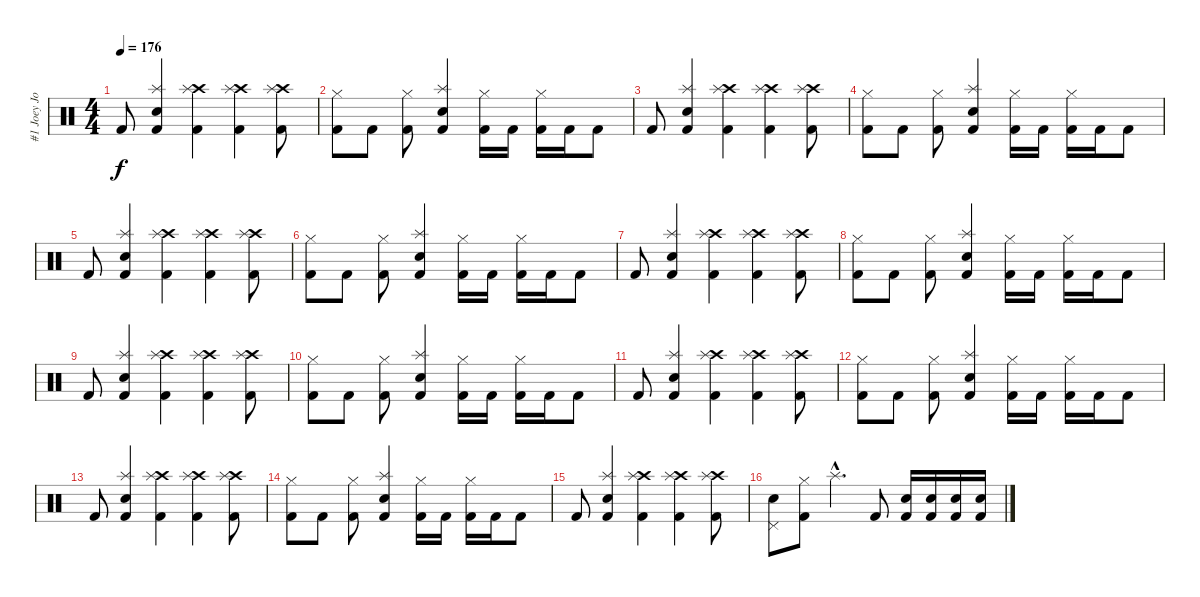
\track ("#1 Joey Jordison - Drums" "#1 Joey Jo") {instrument percussion}
\staff {score}
\articulation defaults
\ts (4 4)
\tempo 176
\clef neutral
\ks c "Kick (hit) 2".8{dy f}
("Splash (hit)" "Snare (hit) 2" "Kick (hit) 2").4 ("Crash high (hit)" "Splash (hit)" "Kick (hit) 2").4 ("Crash high (hit)" "Splash (hit)" "Kick (hit) 2").4 ("Crash high (hit)" "Splash (hit)" "Kick (hit) 2").8 |
("Hi-Hat (closed)" "Kick (hit) 2").8 "Kick (hit) 2".8 ("Hi-Hat (closed)" "Kick (hit) 2").8 ("Splash (hit)" "Snare (hit) 2" "Kick (hit) 2").4 ("Hi-Hat (closed)" "Kick (hit) 2").16 "Kick (hit) 2".16 ("Hi-Hat (closed)" "Kick (hit) 2").16 "Kick (hit) 2".16 "Kick (hit) 2".8 |
"Kick (hit) 2".8 ("Splash (hit)" "Snare (hit) 2" "Kick (hit) 2").4 ("Crash high (hit)" "Splash (hit)" "Kick (hit) 2").4 ("Crash high (hit)" "Splash (hit)" "Kick (hit) 2").4 ("Crash high (hit)" "Splash (hit)" "Kick (hit) 2").8 |
("Hi-Hat (closed)" "Kick (hit) 2").8 "Kick (hit) 2".8 ("Hi-Hat (closed)" "Kick (hit) 2").8 ("Splash (hit)" "Snare (hit) 2" "Kick (hit) 2").4 ("Hi-Hat (closed)" "Kick (hit) 2").16 "Kick (hit) 2".16 ("Hi-Hat (closed)" "Kick (hit) 2").16 "Kick (hit) 2".16 "Kick (hit) 2".8 |
"Kick (hit) 2".8 ("Splash (hit)" "Snare (hit) 2" "Kick (hit) 2").4 ("Crash high (hit)" "Splash (hit)" "Kick (hit) 2").4 ("Crash high (hit)" "Splash (hit)" "Kick (hit) 2").4 ("Crash high (hit)" "Splash (hit)" "Kick (hit) 2").8 |
("Hi-Hat (closed)" "Kick (hit) 2").8 "Kick (hit) 2".8 ("Hi-Hat (closed)" "Kick (hit) 2").8 ("Splash (hit)" "Snare (hit) 2" "Kick (hit) 2").4 ("Hi-Hat (closed)" "Kick (hit) 2").16 "Kick (hit) 2".16 ("Hi-Hat (closed)" "Kick (hit) 2").16 "Kick (hit) 2".16 "Kick (hit) 2".8 |
"Kick (hit) 2".8 ("Splash (hit)" "Snare (hit) 2" "Kick (hit) 2").4 ("Crash high (hit)" "Splash (hit)" "Kick (hit) 2").4 ("Crash high (hit)" "Splash (hit)" "Kick (hit) 2").4 ("Crash high (hit)" "Splash (hit)" "Kick (hit) 2").8 |
("Hi-Hat (closed)" "Kick (hit) 2").8 "Kick (hit) 2".8 ("Hi-Hat (closed)" "Kick (hit) 2").8 ("Splash (hit)" "Snare (hit) 2" "Kick (hit) 2").4 ("Hi-Hat (closed)" "Kick (hit) 2").16 "Kick (hit) 2".16 ("Hi-Hat (closed)" "Kick (hit) 2").16 "Kick (hit) 2".16 "Kick (hit) 2".8 |
"Kick (hit) 2".8 ("Splash (hit)" "Snare (hit) 2" "Kick (hit) 2").4 ("Crash high (hit)" "Splash (hit)" "Kick (hit) 2").4 ("Crash high (hit)" "Splash (hit)" "Kick (hit) 2").4 ("Crash high (hit)" "Splash (hit)" "Kick (hit) 2").8 |
("Hi-Hat (closed)" "Kick (hit) 2").8 "Kick (hit) 2".8 ("Hi-Hat (closed)" "Kick (hit) 2").8 ("Splash (hit)" "Snare (hit) 2" "Kick (hit) 2").4 ("Hi-Hat (closed)" "Kick (hit) 2").16 "Kick (hit) 2".16 ("Hi-Hat (closed)" "Kick (hit) 2").16 "Kick (hit) 2".16 "Kick (hit) 2".8 |
"Kick (hit) 2".8 ("Splash (hit)" "Snare (hit) 2" "Kick (hit) 2").4 ("Crash high (hit)" "Splash (hit)" "Kick (hit) 2").4 ("Crash high (hit)" "Splash (hit)" "Kick (hit) 2").4 ("Crash high (hit)" "Splash (hit)" "Kick (hit) 2").8 |
("Hi-Hat (closed)" "Kick (hit) 2").8 "Kick (hit) 2".8 ("Hi-Hat (closed)" "Kick (hit) 2").8 ("Splash (hit)" "Snare (hit) 2" "Kick (hit) 2").4 ("Hi-Hat (closed)" "Kick (hit) 2").16 "Kick (hit) 2".16 ("Hi-Hat (closed)" "Kick (hit) 2").16 "Kick (hit) 2".16 "Kick (hit) 2".8 |
"Kick (hit) 2".8 ("Splash (hit)" "Snare (hit) 2" "Kick (hit) 2").4 ("Crash high (hit)" "Splash (hit)" "Kick (hit) 2").4 ("Crash high (hit)" "Splash (hit)" "Kick (hit) 2").4 ("Crash high (hit)" "Splash (hit)" "Kick (hit) 2").8 |
("Hi-Hat (closed)" "Kick (hit) 2").8 "Kick (hit) 2".8 ("Hi-Hat (closed)" "Kick (hit) 2").8 ("Splash (hit)" "Snare (hit) 2" "Kick (hit) 2").4 ("Hi-Hat (closed)" "Kick (hit) 2").16 "Kick (hit) 2".16 ("Hi-Hat (closed)" "Kick (hit) 2").16 "Kick (hit) 2".16 "Kick (hit) 2".8 |
"Kick (hit) 2".8 ("Splash (hit)" "Snare (hit) 2" "Kick (hit) 2").4 ("Crash high (hit)" "Splash (hit)" "Kick (hit) 2").4 ("Crash high (hit)" "Splash (hit)" "Kick (hit) 2").4 ("Crash high (hit)" "Splash (hit)" "Kick (hit) 2").8 |
("Pedal Hi-Hat (hit)" "Snare (hit) 2").8 ("Hi-Hat (closed)" "Kick (hit) 2").8 "Splash (hit)"{hac}.4{d} "Kick (hit) 2".8 ("Snare (hit) 2" "Kick (hit) 2").16 ("Snare (hit) 2" "Kick (hit) 2").16 ("Snare (hit) 2" "Kick (hit) 2").16 ("Snare (hit) 2" "Kick (hit) 2").16
